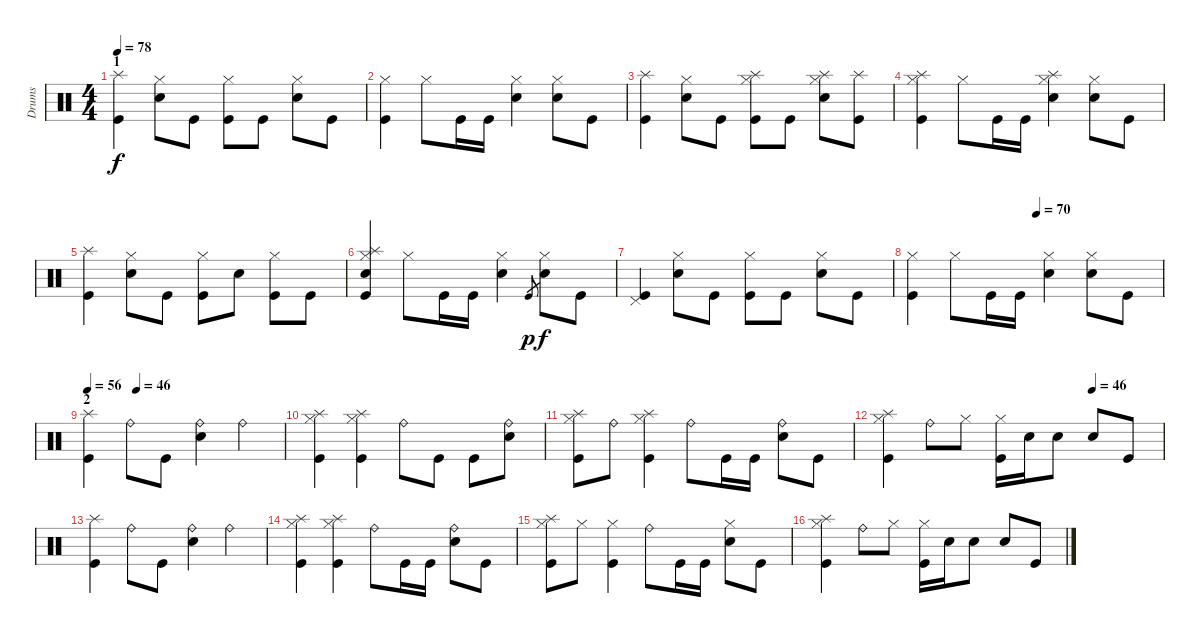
\track ("Drums" "Drums") {instrument percussion}
\staff {score}
\articulation defaults
\ts (4 4)
\section ("" "1")
\tempo 78
\clef neutral
\ks c
("Kick (hit)" "Splash (hit)").4{dy f} ("Hi-Hat (closed)" "Electric Snare (hit)").8 "Kick (hit)".8 ("Hi-Hat (closed)" "Kick (hit)").8 "Kick (hit)".8 ("Hi-Hat (closed)" "Electric Snare (hit)").8 "Kick (hit)".8 |
("Hi-Hat (closed)" "Kick (hit)").4 "Hi-Hat (closed)".8 "Kick (hit)".16 "Kick (hit)".16 ("Hi-Hat (closed)" "Electric Snare (hit)").4 ("Hi-Hat (closed)" "Electric Snare (hit)").8 "Kick (hit)".8 |
("Kick (hit)" "Splash (hit)").4 ("Hi-Hat (closed)" "Electric Snare (hit)").8 "Kick (hit)".8 ("Hi-Hat (closed)" "Kick (hit)" "Splash (hit)").8 "Kick (hit)".8 ("Hi-Hat (closed)" "Electric Snare (hit)" "Splash (hit)").8 ("Kick (hit)" "Splash (hit)").8 |
("Hi-Hat (closed)" "Kick (hit)" "Splash (hit)").4 "Hi-Hat (closed)".8 "Kick (hit)".16 "Kick (hit)".16 ("Hi-Hat (closed)" "Electric Snare (hit)" "Splash (hit)").4 ("Hi-Hat (closed)" "Electric Snare (hit)").8 "Kick (hit)".8 |
("Kick (hit)" "Splash (hit)").4 ("Hi-Hat (closed)" "Electric Snare (hit)").8 "Kick (hit)".8 ("Hi-Hat (closed)" "Kick (hit)").8 "Electric Snare (hit)".8 ("Hi-Hat (closed)" "Kick (hit)").8 "Kick (hit)".8 |
("Hi-Hat (closed)" "Kick (hit)" "Splash (hit)" "Electric Snare (hit)").4 "Hi-Hat (closed)".8 "Kick (hit)".16 "Kick (hit)".16 ("Hi-Hat (closed)" "Electric Snare (hit)").4 "Kick (hit)".8{gr dy p} ("Hi-Hat (closed)" "Electric Snare (hit)").8{dy f} "Kick (hit)".8 |
("Pedal Hi-Hat (hit)" "Kick (hit)").4 ("Hi-Hat (closed)" "Electric Snare (hit)").8 "Kick (hit)".8 ("Hi-Hat (closed)" "Kick (hit)").8 "Kick (hit)".8 ("Hi-Hat (closed)" "Electric Snare (hit)").8 "Kick (hit)".8 |
\tempo (70 0.5)
("Hi-Hat (closed)" "Kick (hit)").4 "Hi-Hat (closed)".8 "Kick (hit)".16 "Kick (hit)".16 ("Hi-Hat (closed)" "Electric Snare (hit)").4 ("Hi-Hat (closed)" "Electric Snare (hit)").8 "Kick (hit)".8 |
\section ("" "2")
\tempo 56
\tempo (46 0.25)
("Kick (hit)" "Splash (hit)").4 "Ride (bell)".8 "Kick (hit)".8 ("Ride (bell)" "Electric Snare (hit)").4 "Ride (bell)".4 |
("Hi-Hat (closed)" "Kick (hit)" "Splash (hit)").4 ("Hi-Hat (closed)" "Kick (hit)" "Splash (hit)").4 "Ride (bell)".8 "Kick (hit)".8 "Kick (hit)".8 ("Ride (bell)" "Electric Snare (hit)").8 |
("Hi-Hat (closed)" "Kick (hit)" "Splash (hit)").8 "Ride (bell)".8 ("Hi-Hat (closed)" "Kick (hit)" "Splash (hit)").4 "Ride (bell)".8 "Kick (hit)".16 "Kick (hit)".16 ("Ride (bell)" "Electric Snare (hit)").8 "Kick (hit)".8 |
\tempo (46 0.75)
("Hi-Hat (closed)" "Kick (hit)" "Splash (hit)").4 "Ride (bell)".8 "Hi-Hat (closed)".8 ("Hi-Hat (closed)" "Kick (hit)").16 "Electric Snare (hit)".16 "Electric Snare (hit)".8 "Electric Snare (hit)".8 "Kick (hit)".8 |
("Kick (hit)" "Splash (hit)").4 "Ride (bell)".8 "Kick (hit)".8 ("Ride (bell)" "Electric Snare (hit)").4 "Ride (bell)".4 |
("Hi-Hat (closed)" "Kick (hit)" "Splash (hit)").4 ("Hi-Hat (closed)" "Kick (hit)" "Splash (hit)").4 "Ride (bell)".8 "Kick (hit)".16 "Kick (hit)".16 ("Ride (bell)" "Electric Snare (hit)").8 "Kick (hit)".8 |
("Hi-Hat (closed)" "Kick (hit)" "Splash (hit)").8 "Hi-Hat (closed)".8 ("Hi-Hat (closed)" "Kick (hit)").4 "Ride (bell)".8 "Kick (hit)".16 "Kick (hit)".16 ("Hi-Hat (closed)" "Electric Snare (hit)").8 "Kick (hit)".8 |
("Hi-Hat (closed)" "Kick (hit)" "Splash (hit)").4 "Ride (bell)".8 "Hi-Hat (closed)".8 ("Hi-Hat (closed)" "Kick (hit)").16 "Electric Snare (hit)".16 "Electric Snare (hit)".8 "Electric Snare (hit)".8 "Kick (hit)".8
